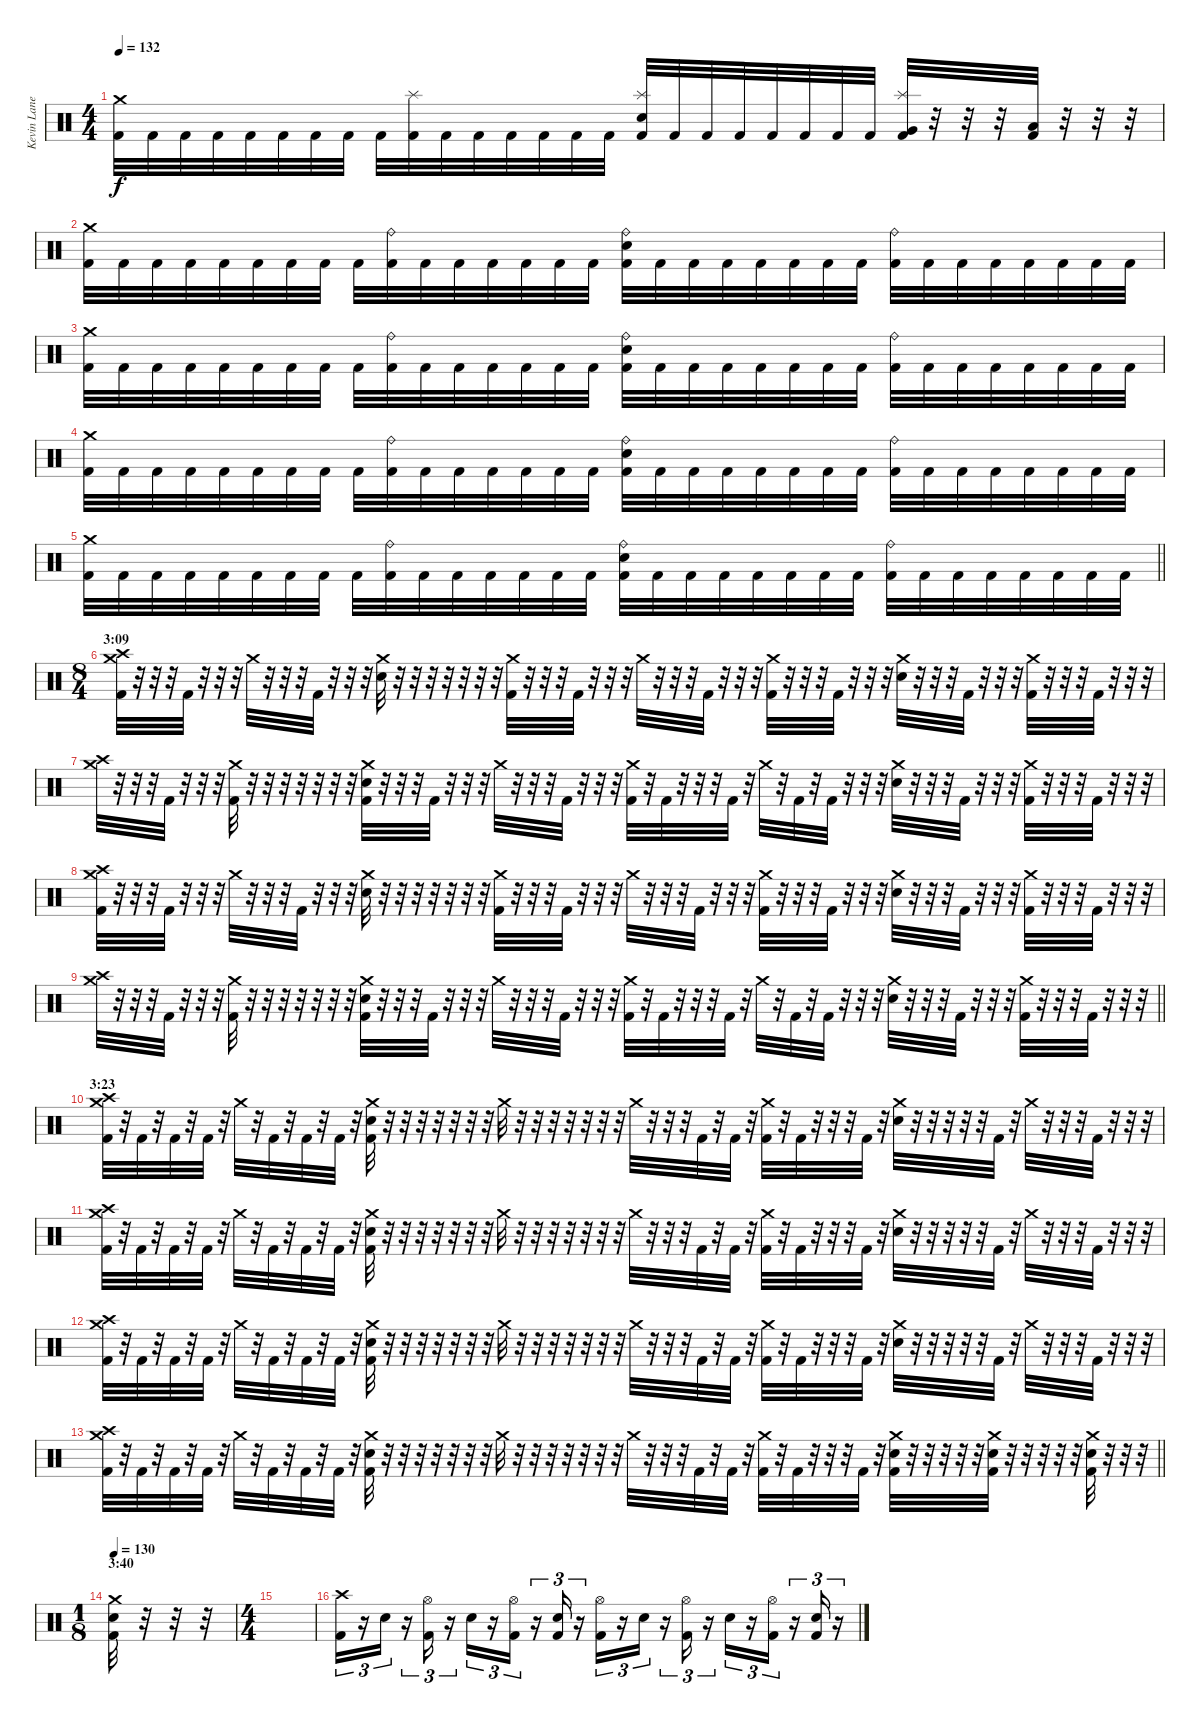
\track ("Kevin Lane" "Kevin Lane") {instrument percussion}
\staff {score}
\articulation defaults
\ts (4 4)
\tempo 132
\clef neutral
\ks c
("Crash medium (hit)" "Kick (hit) 2").32{dy f} "Kick (hit) 2".32 "Kick (hit) 2".32 "Kick (hit) 2".32 "Kick (hit) 2".32 "Kick (hit) 2".32 "Kick (hit) 2".32 "Kick (hit) 2".32 "Kick (hit) 2".32 ("Splash (hit)" "Kick (hit) 2").32 "Kick (hit) 2".32 "Kick (hit) 2".32 "Kick (hit) 2".32 "Kick (hit) 2".32 "Kick (hit) 2".32 "Kick (hit) 2".32 ("Splash (hit)" "Electric Snare (hit)" "Kick (hit) 2").32 "Kick (hit) 2".32 "Kick (hit) 2".32 "Kick (hit) 2".32 "Kick (hit) 2".32 "Kick (hit) 2".32 "Kick (hit) 2".32 "Kick (hit) 2".32 ("Splash (hit)" "Very Low Tom (hit)" "Kick (hit) 2").32 r.32 r.32 r.32 ("Low Floor Tom (hit)" "Kick (hit) 2").32 r.32 r.32 r.32 |
("Crash medium (hit)" "Kick (hit) 2").32 "Kick (hit) 2".32 "Kick (hit) 2".32 "Kick (hit) 2".32 "Kick (hit) 2".32 "Kick (hit) 2".32 "Kick (hit) 2".32 "Kick (hit) 2".32 "Kick (hit) 2".32 ("Ride (bell)" "Kick (hit) 2").32 "Kick (hit) 2".32 "Kick (hit) 2".32 "Kick (hit) 2".32 "Kick (hit) 2".32 "Kick (hit) 2".32 "Kick (hit) 2".32 ("Ride (bell)" "Electric Snare (hit)" "Kick (hit) 2").32 "Kick (hit) 2".32 "Kick (hit) 2".32 "Kick (hit) 2".32 "Kick (hit) 2".32 "Kick (hit) 2".32 "Kick (hit) 2".32 "Kick (hit) 2".32 ("Ride (bell)" "Kick (hit) 2").32 "Kick (hit) 2".32 "Kick (hit) 2".32 "Kick (hit) 2".32 "Kick (hit) 2".32 "Kick (hit) 2".32 "Kick (hit) 2".32 "Kick (hit) 2".32 |
("Crash medium (hit)" "Kick (hit) 2").32 "Kick (hit) 2".32 "Kick (hit) 2".32 "Kick (hit) 2".32 "Kick (hit) 2".32 "Kick (hit) 2".32 "Kick (hit) 2".32 "Kick (hit) 2".32 "Kick (hit) 2".32 ("Ride (bell)" "Kick (hit) 2").32 "Kick (hit) 2".32 "Kick (hit) 2".32 "Kick (hit) 2".32 "Kick (hit) 2".32 "Kick (hit) 2".32 "Kick (hit) 2".32 ("Ride (bell)" "Electric Snare (hit)" "Kick (hit) 2").32 "Kick (hit) 2".32 "Kick (hit) 2".32 "Kick (hit) 2".32 "Kick (hit) 2".32 "Kick (hit) 2".32 "Kick (hit) 2".32 "Kick (hit) 2".32 ("Ride (bell)" "Kick (hit) 2").32 "Kick (hit) 2".32 "Kick (hit) 2".32 "Kick (hit) 2".32 "Kick (hit) 2".32 "Kick (hit) 2".32 "Kick (hit) 2".32 "Kick (hit) 2".32 |
("Crash medium (hit)" "Kick (hit) 2").32 "Kick (hit) 2".32 "Kick (hit) 2".32 "Kick (hit) 2".32 "Kick (hit) 2".32 "Kick (hit) 2".32 "Kick (hit) 2".32 "Kick (hit) 2".32 "Kick (hit) 2".32 ("Ride (bell)" "Kick (hit) 2").32 "Kick (hit) 2".32 "Kick (hit) 2".32 "Kick (hit) 2".32 "Kick (hit) 2".32 "Kick (hit) 2".32 "Kick (hit) 2".32 ("Ride (bell)" "Electric Snare (hit)" "Kick (hit) 2").32 "Kick (hit) 2".32 "Kick (hit) 2".32 "Kick (hit) 2".32 "Kick (hit) 2".32 "Kick (hit) 2".32 "Kick (hit) 2".32 "Kick (hit) 2".32 ("Ride (bell)" "Kick (hit) 2").32 "Kick (hit) 2".32 "Kick (hit) 2".32 "Kick (hit) 2".32 "Kick (hit) 2".32 "Kick (hit) 2".32 "Kick (hit) 2".32 "Kick (hit) 2".32 |
\barLineRight lightlight
("Crash medium (hit)" "Kick (hit) 2").32 "Kick (hit) 2".32 "Kick (hit) 2".32 "Kick (hit) 2".32 "Kick (hit) 2".32 "Kick (hit) 2".32 "Kick (hit) 2".32 "Kick (hit) 2".32 "Kick (hit) 2".32 ("Ride (bell)" "Kick (hit) 2").32 "Kick (hit) 2".32 "Kick (hit) 2".32 "Kick (hit) 2".32 "Kick (hit) 2".32 "Kick (hit) 2".32 "Kick (hit) 2".32 ("Ride (bell)" "Electric Snare (hit)" "Kick (hit) 2").32 "Kick (hit) 2".32 "Kick (hit) 2".32 "Kick (hit) 2".32 "Kick (hit) 2".32 "Kick (hit) 2".32 "Kick (hit) 2".32 "Kick (hit) 2".32 ("Ride (bell)" "Kick (hit) 2").32 "Kick (hit) 2".32 "Kick (hit) 2".32 "Kick (hit) 2".32 "Kick (hit) 2".32 "Kick (hit) 2".32 "Kick (hit) 2".32 "Kick (hit) 2".32 |
\ts (8 4)
\section ("" "3:09")
("Crash high (hit)" "Crash medium (hit)" "Kick (hit) 2").32 r.32 r.32 r.32 "Kick (hit) 2".32 r.32 r.32 r.32 "Crash medium (hit)".32 r.32 r.32 r.32 "Kick (hit) 2".32 r.32 r.32 r.32 ("Crash medium (hit)" "Electric Snare (hit)").32 r.32 r.32 r.32 r.32 r.32 r.32 r.32 ("Crash medium (hit)" "Kick (hit) 2").32 r.32 r.32 r.32 "Kick (hit) 2".32 r.32 r.32 r.32 "Crash medium (hit)".32 r.32 r.32 r.32 "Kick (hit) 2".32 r.32 r.32 r.32 ("Crash medium (hit)" "Kick (hit) 2").32 r.32 r.32 r.32 "Kick (hit) 2".32 r.32 r.32 r.32 ("Crash medium (hit)" "Electric Snare (hit)").32 r.32 r.32 r.32 "Kick (hit) 2".32 r.32 r.32 r.32 ("Crash medium (hit)" "Kick (hit) 2").32 r.32 r.32 r.32 "Kick (hit) 2".32 r.32 r.32 r.32 |
("Crash high (hit)" "Crash medium (hit)").32 r.32 r.32 r.32 "Kick (hit) 2".32 r.32 r.32 r.32 ("Crash medium (hit)" "Kick (hit) 2").32 r.32 r.32 r.32 r.32 r.32 r.32 r.32 ("Crash medium (hit)" "Electric Snare (hit)" "Kick (hit) 2").32 r.32 r.32 r.32 "Kick (hit) 2".32 r.32 r.32 r.32 "Crash medium (hit)".32 r.32 r.32 r.32 "Kick (hit) 2".32 r.32 r.32 r.32 ("Crash medium (hit)" "Kick (hit) 2").32 r.32 "Kick (hit) 2".32 r.32 r.32 r.32 "Kick (hit) 2".32 r.32 "Crash medium (hit)".32 r.32 "Kick (hit) 2".32 r.32 "Kick (hit) 2".32 r.32 r.32 r.32 ("Crash medium (hit)" "Electric Snare (hit)").32 r.32 r.32 r.32 "Kick (hit) 2".32 r.32 r.32 r.32 ("Crash medium (hit)" "Kick (hit) 2").32 r.32 r.32 r.32 "Kick (hit) 2".32 r.32 r.32 r.32 |
("Crash high (hit)" "Crash medium (hit)" "Kick (hit) 2").32 r.32 r.32 r.32 "Kick (hit) 2".32 r.32 r.32 r.32 "Crash medium (hit)".32 r.32 r.32 r.32 "Kick (hit) 2".32 r.32 r.32 r.32 ("Crash medium (hit)" "Electric Snare (hit)").32 r.32 r.32 r.32 r.32 r.32 r.32 r.32 ("Crash medium (hit)" "Kick (hit) 2").32 r.32 r.32 r.32 "Kick (hit) 2".32 r.32 r.32 r.32 "Crash medium (hit)".32 r.32 r.32 r.32 "Kick (hit) 2".32 r.32 r.32 r.32 ("Crash medium (hit)" "Kick (hit) 2").32 r.32 r.32 r.32 "Kick (hit) 2".32 r.32 r.32 r.32 ("Crash medium (hit)" "Electric Snare (hit)").32 r.32 r.32 r.32 "Kick (hit) 2".32 r.32 r.32 r.32 ("Crash medium (hit)" "Kick (hit) 2").32 r.32 r.32 r.32 "Kick (hit) 2".32 r.32 r.32 r.32 |
\barLineRight lightlight
("Crash high (hit)" "Crash medium (hit)").32 r.32 r.32 r.32 "Kick (hit) 2".32 r.32 r.32 r.32 ("Crash medium (hit)" "Kick (hit) 2").32 r.32 r.32 r.32 r.32 r.32 r.32 r.32 ("Crash medium (hit)" "Electric Snare (hit)" "Kick (hit) 2").32 r.32 r.32 r.32 "Kick (hit) 2".32 r.32 r.32 r.32 "Crash medium (hit)".32 r.32 r.32 r.32 "Kick (hit) 2".32 r.32 r.32 r.32 ("Crash medium (hit)" "Kick (hit) 2").32 r.32 "Kick (hit) 2".32 r.32 r.32 r.32 "Kick (hit) 2".32 r.32 "Crash medium (hit)".32 r.32 "Kick (hit) 2".32 r.32 "Kick (hit) 2".32 r.32 r.32 r.32 ("Crash medium (hit)" "Electric Snare (hit)").32 r.32 r.32 r.32 "Kick (hit) 2".32 r.32 r.32 r.32 ("Crash medium (hit)" "Kick (hit) 2").32 r.32 r.32 r.32 "Kick (hit) 2".32 r.32 r.32 r.32 |
\section ("" "3:23")
("Crash high (hit)" "Crash medium (hit)" "Kick (hit) 2").32 r.32 "Kick (hit) 2".32 r.32 "Kick (hit) 2".32 r.32 "Kick (hit) 2".32 r.32 "Crash medium (hit)".32 r.32 "Kick (hit) 2".32 r.32 "Kick (hit) 2".32 r.32 "Kick (hit) 2".32 r.32 ("Crash medium (hit)" "Electric Snare (hit)" "Kick (hit) 2").32 r.32 r.32 r.32 r.32 r.32 r.32 r.32 "Crash medium (hit)".32 r.32 r.32 r.32 r.32 r.32 r.32 r.32 "Crash medium (hit)".32 r.32 r.32 r.32 "Kick (hit) 2".32 r.32 "Kick (hit) 2".32 r.32 ("Crash medium (hit)" "Kick (hit) 2").32 r.32 "Kick (hit) 2".32 r.32 r.32 r.32 "Kick (hit) 2".32 r.32 ("Crash medium (hit)" "Electric Snare (hit)").32 r.32 r.32 r.32 r.32 r.32 "Kick (hit) 2".32 r.32 "Crash medium (hit)".32 r.32 r.32 r.32 "Kick (hit) 2".32 r.32 r.32 r.32 |
("Crash high (hit)" "Crash medium (hit)" "Kick (hit) 2").32 r.32 "Kick (hit) 2".32 r.32 "Kick (hit) 2".32 r.32 "Kick (hit) 2".32 r.32 "Crash medium (hit)".32 r.32 "Kick (hit) 2".32 r.32 "Kick (hit) 2".32 r.32 "Kick (hit) 2".32 r.32 ("Crash medium (hit)" "Electric Snare (hit)" "Kick (hit) 2").32 r.32 r.32 r.32 r.32 r.32 r.32 r.32 "Crash medium (hit)".32 r.32 r.32 r.32 r.32 r.32 r.32 r.32 "Crash medium (hit)".32 r.32 r.32 r.32 "Kick (hit) 2".32 r.32 "Kick (hit) 2".32 r.32 ("Crash medium (hit)" "Kick (hit) 2").32 r.32 "Kick (hit) 2".32 r.32 r.32 r.32 "Kick (hit) 2".32 r.32 ("Crash medium (hit)" "Electric Snare (hit)").32 r.32 r.32 r.32 r.32 r.32 "Kick (hit) 2".32 r.32 "Crash medium (hit)".32 r.32 r.32 r.32 "Kick (hit) 2".32 r.32 r.32 r.32 |
("Crash high (hit)" "Crash medium (hit)" "Kick (hit) 2").32 r.32 "Kick (hit) 2".32 r.32 "Kick (hit) 2".32 r.32 "Kick (hit) 2".32 r.32 "Crash medium (hit)".32 r.32 "Kick (hit) 2".32 r.32 "Kick (hit) 2".32 r.32 "Kick (hit) 2".32 r.32 ("Crash medium (hit)" "Electric Snare (hit)" "Kick (hit) 2").32 r.32 r.32 r.32 r.32 r.32 r.32 r.32 "Crash medium (hit)".32 r.32 r.32 r.32 r.32 r.32 r.32 r.32 "Crash medium (hit)".32 r.32 r.32 r.32 "Kick (hit) 2".32 r.32 "Kick (hit) 2".32 r.32 ("Crash medium (hit)" "Kick (hit) 2").32 r.32 "Kick (hit) 2".32 r.32 r.32 r.32 "Kick (hit) 2".32 r.32 ("Crash medium (hit)" "Electric Snare (hit)").32 r.32 r.32 r.32 r.32 r.32 "Kick (hit) 2".32 r.32 "Crash medium (hit)".32 r.32 r.32 r.32 "Kick (hit) 2".32 r.32 r.32 r.32 |
\barLineRight lightlight
("Crash high (hit)" "Crash medium (hit)" "Kick (hit) 2").32 r.32 "Kick (hit) 2".32 r.32 "Kick (hit) 2".32 r.32 "Kick (hit) 2".32 r.32 "Crash medium (hit)".32 r.32 "Kick (hit) 2".32 r.32 "Kick (hit) 2".32 r.32 "Kick (hit) 2".32 r.32 ("Crash medium (hit)" "Electric Snare (hit)" "Kick (hit) 2").32 r.32 r.32 r.32 r.32 r.32 r.32 r.32 "Crash medium (hit)".32 r.32 r.32 r.32 r.32 r.32 r.32 r.32 "Crash medium (hit)".32 r.32 r.32 r.32 "Kick (hit) 2".32 r.32 "Kick (hit) 2".32 r.32 ("Crash medium (hit)" "Kick (hit) 2").32 r.32 "Kick (hit) 2".32 r.32 r.32 r.32 "Kick (hit) 2".32 r.32 ("Crash medium (hit)" "Electric Snare (hit)" "Kick (hit) 2").32 r.32 r.32 r.32 r.32 r.32 ("Crash medium (hit)" "Electric Snare (hit)" "Kick (hit) 2").32 r.32 r.32 r.32 r.32 r.32 ("Crash medium (hit)" "Electric Snare (hit)" "Kick (hit) 2").32 r.32 r.32 r.32 |
\ts (1 8)
\section ("" "3:40")
\tempo 130
("Crash medium (hit)" "Electric Snare (hit)" "Kick (hit) 2").32 r.32 r.32 r.32 |
\ts (4 4)
|
("Crash high (hit)" "Kick (hit) 2").16{tu (3 2)} r.16{tu (3 2)} "Electric Snare (hit)".16{tu (3 2)} r.16{tu (3 2)} ("Hi-Hat (open)" "Kick (hit) 2").16{tu (3 2)} r.16{tu (3 2)} "Electric Snare (hit)".16{tu (3 2)} r.16{tu (3 2)} ("Hi-Hat (open)" "Kick (hit) 2").16{tu (3 2)} r.16{tu (3 2)} ("Electric Snare (hit)" "Kick (hit) 2").16{tu (3 2)} r.16{tu (3 2)} ("Hi-Hat (open)" "Kick (hit) 2").16{tu (3 2)} r.16{tu (3 2)} "Electric Snare (hit)".16{tu (3 2)} r.16{tu (3 2)} ("Hi-Hat (open)" "Kick (hit) 2").16{tu (3 2)} r.16{tu (3 2)} "Electric Snare (hit)".16{tu (3 2)} r.16{tu (3 2)} ("Hi-Hat (open)" "Kick (hit) 2").16{tu (3 2)} r.16{tu (3 2)} ("Electric Snare (hit)" "Kick (hit) 2").16{tu (3 2)} r.16{tu (3 2)}
